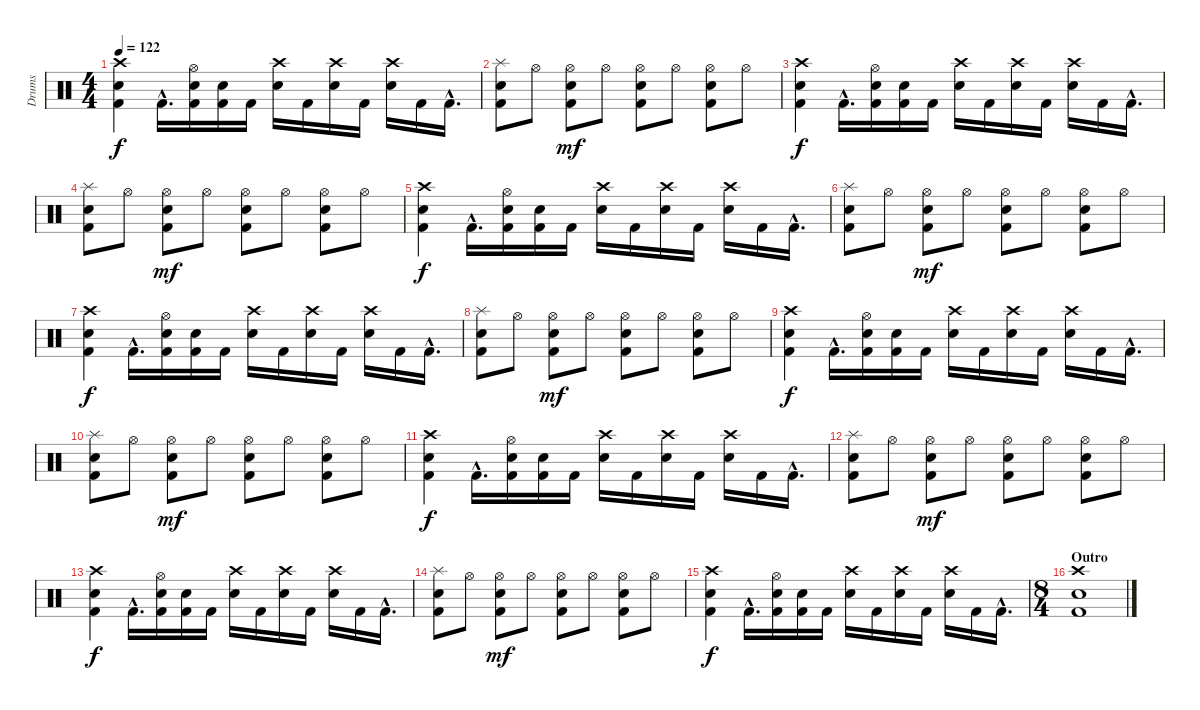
\track ("Drums" "Drums") {instrument percussion}
\staff {score}
\articulation defaults
\ts (4 4)
\tempo 122
\clef neutral
\ks c
("Crash high (hit)" "Snare (hit) 2" "Kick (hit) 2").4{dy f} "Kick (hit) 2"{hac}.16{d} ("Hi-Hat (open)" "Snare (hit) 2" "Kick (hit) 2").16 ("Snare (hit) 2" "Kick (hit) 2").16 "Kick (hit) 2".16 ("Crash high (hit)" "Snare (hit) 2").16 "Kick (hit) 2".16 ("Crash high (hit)" "Snare (hit) 2").16 "Kick (hit) 2".16 ("Crash high (hit)" "Snare (hit) 2").16 "Kick (hit) 2".16 "Kick (hit) 2"{hac}.16{d} |
("Splash (hit)" "Snare (hit) 2" "Kick (hit) 2").8 "Hi-Hat (open)".8 ("Hi-Hat (open)" "Snare (hit) 2" "Kick (hit) 2").8{dy mf} "Hi-Hat (open)".8 ("Hi-Hat (open)" "Snare (hit) 2" "Kick (hit) 2").8 "Hi-Hat (open)".8 ("Hi-Hat (open)" "Snare (hit) 2" "Kick (hit) 2").8 "Hi-Hat (open)".8 |
("Crash high (hit)" "Snare (hit) 2" "Kick (hit) 2").4{dy f} "Kick (hit) 2"{hac}.16{d} ("Hi-Hat (open)" "Snare (hit) 2" "Kick (hit) 2").16 ("Snare (hit) 2" "Kick (hit) 2").16 "Kick (hit) 2".16 ("Crash high (hit)" "Snare (hit) 2").16 "Kick (hit) 2".16 ("Crash high (hit)" "Snare (hit) 2").16 "Kick (hit) 2".16 ("Crash high (hit)" "Snare (hit) 2").16 "Kick (hit) 2".16 "Kick (hit) 2"{hac}.16{d} |
("Splash (hit)" "Snare (hit) 2" "Kick (hit) 2").8 "Hi-Hat (open)".8 ("Hi-Hat (open)" "Snare (hit) 2" "Kick (hit) 2").8{dy mf} "Hi-Hat (open)".8 ("Hi-Hat (open)" "Snare (hit) 2" "Kick (hit) 2").8 "Hi-Hat (open)".8 ("Hi-Hat (open)" "Snare (hit) 2" "Kick (hit) 2").8 "Hi-Hat (open)".8 |
("Crash high (hit)" "Snare (hit) 2" "Kick (hit) 2").4{dy f} "Kick (hit) 2"{hac}.16{d} ("Hi-Hat (open)" "Snare (hit) 2" "Kick (hit) 2").16 ("Snare (hit) 2" "Kick (hit) 2").16 "Kick (hit) 2".16 ("Crash high (hit)" "Snare (hit) 2").16 "Kick (hit) 2".16 ("Crash high (hit)" "Snare (hit) 2").16 "Kick (hit) 2".16 ("Crash high (hit)" "Snare (hit) 2").16 "Kick (hit) 2".16 "Kick (hit) 2"{hac}.16{d} |
("Splash (hit)" "Snare (hit) 2" "Kick (hit) 2").8 "Hi-Hat (open)".8 ("Hi-Hat (open)" "Snare (hit) 2" "Kick (hit) 2").8{dy mf} "Hi-Hat (open)".8 ("Hi-Hat (open)" "Snare (hit) 2" "Kick (hit) 2").8 "Hi-Hat (open)".8 ("Hi-Hat (open)" "Snare (hit) 2" "Kick (hit) 2").8 "Hi-Hat (open)".8 |
("Crash high (hit)" "Snare (hit) 2" "Kick (hit) 2").4{dy f} "Kick (hit) 2"{hac}.16{d} ("Hi-Hat (open)" "Snare (hit) 2" "Kick (hit) 2").16 ("Snare (hit) 2" "Kick (hit) 2").16 "Kick (hit) 2".16 ("Crash high (hit)" "Snare (hit) 2").16 "Kick (hit) 2".16 ("Crash high (hit)" "Snare (hit) 2").16 "Kick (hit) 2".16 ("Crash high (hit)" "Snare (hit) 2").16 "Kick (hit) 2".16 "Kick (hit) 2"{hac}.16{d} |
("Splash (hit)" "Snare (hit) 2" "Kick (hit) 2").8 "Hi-Hat (open)".8 ("Hi-Hat (open)" "Snare (hit) 2" "Kick (hit) 2").8{dy mf} "Hi-Hat (open)".8 ("Hi-Hat (open)" "Snare (hit) 2" "Kick (hit) 2").8 "Hi-Hat (open)".8 ("Hi-Hat (open)" "Snare (hit) 2" "Kick (hit) 2").8 "Hi-Hat (open)".8 |
("Crash high (hit)" "Snare (hit) 2" "Kick (hit) 2").4{dy f} "Kick (hit) 2"{hac}.16{d} ("Hi-Hat (open)" "Snare (hit) 2" "Kick (hit) 2").16 ("Snare (hit) 2" "Kick (hit) 2").16 "Kick (hit) 2".16 ("Crash high (hit)" "Snare (hit) 2").16 "Kick (hit) 2".16 ("Crash high (hit)" "Snare (hit) 2").16 "Kick (hit) 2".16 ("Crash high (hit)" "Snare (hit) 2").16 "Kick (hit) 2".16 "Kick (hit) 2"{hac}.16{d} |
("Splash (hit)" "Snare (hit) 2" "Kick (hit) 2").8 "Hi-Hat (open)".8 ("Hi-Hat (open)" "Snare (hit) 2" "Kick (hit) 2").8{dy mf} "Hi-Hat (open)".8 ("Hi-Hat (open)" "Snare (hit) 2" "Kick (hit) 2").8 "Hi-Hat (open)".8 ("Hi-Hat (open)" "Snare (hit) 2" "Kick (hit) 2").8 "Hi-Hat (open)".8 |
("Crash high (hit)" "Snare (hit) 2" "Kick (hit) 2").4{dy f} "Kick (hit) 2"{hac}.16{d} ("Hi-Hat (open)" "Snare (hit) 2" "Kick (hit) 2").16 ("Snare (hit) 2" "Kick (hit) 2").16 "Kick (hit) 2".16 ("Crash high (hit)" "Snare (hit) 2").16 "Kick (hit) 2".16 ("Crash high (hit)" "Snare (hit) 2").16 "Kick (hit) 2".16 ("Crash high (hit)" "Snare (hit) 2").16 "Kick (hit) 2".16 "Kick (hit) 2"{hac}.16{d} |
("Splash (hit)" "Snare (hit) 2" "Kick (hit) 2").8 "Hi-Hat (open)".8 ("Hi-Hat (open)" "Snare (hit) 2" "Kick (hit) 2").8{dy mf} "Hi-Hat (open)".8 ("Hi-Hat (open)" "Snare (hit) 2" "Kick (hit) 2").8 "Hi-Hat (open)".8 ("Hi-Hat (open)" "Snare (hit) 2" "Kick (hit) 2").8 "Hi-Hat (open)".8 |
("Crash high (hit)" "Snare (hit) 2" "Kick (hit) 2").4{dy f} "Kick (hit) 2"{hac}.16{d} ("Hi-Hat (open)" "Snare (hit) 2" "Kick (hit) 2").16 ("Snare (hit) 2" "Kick (hit) 2").16 "Kick (hit) 2".16 ("Crash high (hit)" "Snare (hit) 2").16 "Kick (hit) 2".16 ("Crash high (hit)" "Snare (hit) 2").16 "Kick (hit) 2".16 ("Crash high (hit)" "Snare (hit) 2").16 "Kick (hit) 2".16 "Kick (hit) 2"{hac}.16{d} |
("Splash (hit)" "Snare (hit) 2" "Kick (hit) 2").8 "Hi-Hat (open)".8 ("Hi-Hat (open)" "Snare (hit) 2" "Kick (hit) 2").8{dy mf} "Hi-Hat (open)".8 ("Hi-Hat (open)" "Snare (hit) 2" "Kick (hit) 2").8 "Hi-Hat (open)".8 ("Hi-Hat (open)" "Snare (hit) 2" "Kick (hit) 2").8 "Hi-Hat (open)".8 |
("Crash high (hit)" "Snare (hit) 2" "Kick (hit) 2").4{dy f} "Kick (hit) 2"{hac}.16{d} ("Hi-Hat (open)" "Snare (hit) 2" "Kick (hit) 2").16 ("Snare (hit) 2" "Kick (hit) 2").16 "Kick (hit) 2".16 ("Crash high (hit)" "Snare (hit) 2").16 "Kick (hit) 2".16 ("Crash high (hit)" "Snare (hit) 2").16 "Kick (hit) 2".16 ("Crash high (hit)" "Snare (hit) 2").16 "Kick (hit) 2".16 "Kick (hit) 2"{hac}.16{d} |
\ts (8 4)
\section ("" "Outro")
("Crash high (hit)" "Snare (hit) 2" "Kick (hit) 2").1
